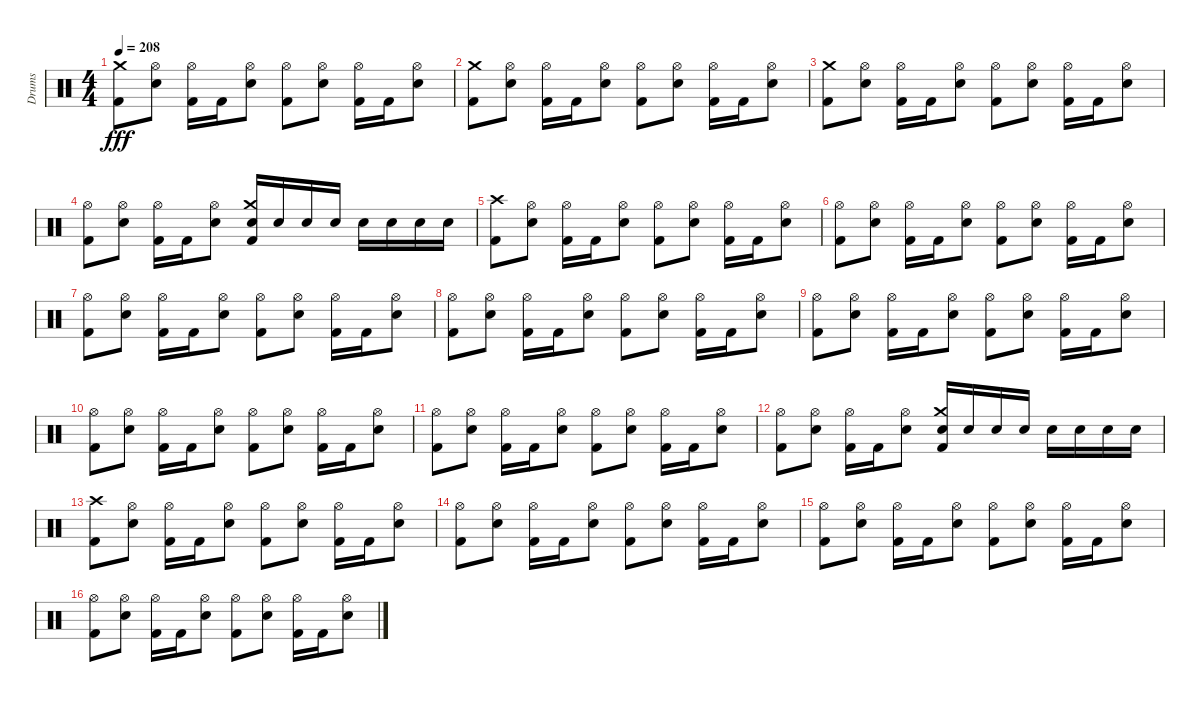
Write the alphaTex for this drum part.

\track ("Drums" "Drums") {instrument percussion}
\staff {score}
\articulation defaults
\ts (4 4)
\tempo 208
\clef neutral
\ks c
("Kick (hit) 2" "Crash medium (hit)").8{dy fff} ("Electric Snare (hit)" "Hi-Hat (open)").8 ("Hi-Hat (open)" "Kick (hit) 2").16 "Kick (hit) 2".16 ("Electric Snare (hit)" "Hi-Hat (open)").8 ("Hi-Hat (open)" "Kick (hit) 2").8 ("Electric Snare (hit)" "Hi-Hat (open)").8 ("Hi-Hat (open)" "Kick (hit) 2").16 "Kick (hit) 2".16 ("Electric Snare (hit)" "Hi-Hat (open)").8 |
("Kick (hit) 2" "Crash medium (hit)").8 ("Electric Snare (hit)" "Hi-Hat (open)").8 ("Hi-Hat (open)" "Kick (hit) 2").16 "Kick (hit) 2".16 ("Electric Snare (hit)" "Hi-Hat (open)").8 ("Hi-Hat (open)" "Kick (hit) 2").8 ("Electric Snare (hit)" "Hi-Hat (open)").8 ("Hi-Hat (open)" "Kick (hit) 2").16 "Kick (hit) 2".16 ("Electric Snare (hit)" "Hi-Hat (open)").8 |
("Kick (hit) 2" "Crash medium (hit)").8 ("Electric Snare (hit)" "Hi-Hat (open)").8 ("Hi-Hat (open)" "Kick (hit) 2").16 "Kick (hit) 2".16 ("Electric Snare (hit)" "Hi-Hat (open)").8 ("Hi-Hat (open)" "Kick (hit) 2").8 ("Electric Snare (hit)" "Hi-Hat (open)").8 ("Hi-Hat (open)" "Kick (hit) 2").16 "Kick (hit) 2".16 ("Electric Snare (hit)" "Hi-Hat (open)").8 |
("Hi-Hat (open)" "Kick (hit) 2").8 ("Electric Snare (hit)" "Hi-Hat (open)").8 ("Hi-Hat (open)" "Kick (hit) 2").16 "Kick (hit) 2".16 ("Electric Snare (hit)" "Hi-Hat (open)").8 ("Kick (hit) 2" "Electric Snare (hit)" "Crash medium (hit)").16 "Electric Snare (hit)".16 "Electric Snare (hit)".16 "Electric Snare (hit)".16 "Electric Snare (hit)".16 "Electric Snare (hit)".16 "Electric Snare (hit)".16 "Electric Snare (hit)".16 |
("Kick (hit) 2" "Crash high (hit)").8 ("Electric Snare (hit)" "Hi-Hat (open)").8 ("Hi-Hat (open)" "Kick (hit) 2").16 "Kick (hit) 2".16 ("Electric Snare (hit)" "Hi-Hat (open)").8 ("Hi-Hat (open)" "Kick (hit) 2").8 ("Electric Snare (hit)" "Hi-Hat (open)").8 ("Hi-Hat (open)" "Kick (hit) 2").16 "Kick (hit) 2".16 ("Electric Snare (hit)" "Hi-Hat (open)").8 |
("Hi-Hat (open)" "Kick (hit) 2").8 ("Electric Snare (hit)" "Hi-Hat (open)").8 ("Hi-Hat (open)" "Kick (hit) 2").16 "Kick (hit) 2".16 ("Electric Snare (hit)" "Hi-Hat (open)").8 ("Hi-Hat (open)" "Kick (hit) 2").8 ("Electric Snare (hit)" "Hi-Hat (open)").8 ("Hi-Hat (open)" "Kick (hit) 2").16 "Kick (hit) 2".16 ("Electric Snare (hit)" "Hi-Hat (open)").8 |
("Hi-Hat (open)" "Kick (hit) 2").8 ("Electric Snare (hit)" "Hi-Hat (open)").8 ("Hi-Hat (open)" "Kick (hit) 2").16 "Kick (hit) 2".16 ("Electric Snare (hit)" "Hi-Hat (open)").8 ("Hi-Hat (open)" "Kick (hit) 2").8 ("Electric Snare (hit)" "Hi-Hat (open)").8 ("Hi-Hat (open)" "Kick (hit) 2").16 "Kick (hit) 2".16 ("Electric Snare (hit)" "Hi-Hat (open)").8 |
("Hi-Hat (open)" "Kick (hit) 2").8 ("Electric Snare (hit)" "Hi-Hat (open)").8 ("Hi-Hat (open)" "Kick (hit) 2").16 "Kick (hit) 2".16 ("Electric Snare (hit)" "Hi-Hat (open)").8 ("Hi-Hat (open)" "Kick (hit) 2").8 ("Electric Snare (hit)" "Hi-Hat (open)").8 ("Hi-Hat (open)" "Kick (hit) 2").16 "Kick (hit) 2".16 ("Electric Snare (hit)" "Hi-Hat (open)").8 |
("Hi-Hat (open)" "Kick (hit) 2").8 ("Electric Snare (hit)" "Hi-Hat (open)").8 ("Hi-Hat (open)" "Kick (hit) 2").16 "Kick (hit) 2".16 ("Electric Snare (hit)" "Hi-Hat (open)").8 ("Hi-Hat (open)" "Kick (hit) 2").8 ("Electric Snare (hit)" "Hi-Hat (open)").8 ("Hi-Hat (open)" "Kick (hit) 2").16 "Kick (hit) 2".16 ("Electric Snare (hit)" "Hi-Hat (open)").8 |
("Hi-Hat (open)" "Kick (hit) 2").8 ("Electric Snare (hit)" "Hi-Hat (open)").8 ("Hi-Hat (open)" "Kick (hit) 2").16 "Kick (hit) 2".16 ("Electric Snare (hit)" "Hi-Hat (open)").8 ("Hi-Hat (open)" "Kick (hit) 2").8 ("Electric Snare (hit)" "Hi-Hat (open)").8 ("Hi-Hat (open)" "Kick (hit) 2").16 "Kick (hit) 2".16 ("Electric Snare (hit)" "Hi-Hat (open)").8 |
("Hi-Hat (open)" "Kick (hit) 2").8 ("Electric Snare (hit)" "Hi-Hat (open)").8 ("Hi-Hat (open)" "Kick (hit) 2").16 "Kick (hit) 2".16 ("Electric Snare (hit)" "Hi-Hat (open)").8 ("Hi-Hat (open)" "Kick (hit) 2").8 ("Electric Snare (hit)" "Hi-Hat (open)").8 ("Hi-Hat (open)" "Kick (hit) 2").16 "Kick (hit) 2".16 ("Electric Snare (hit)" "Hi-Hat (open)").8 |
("Hi-Hat (open)" "Kick (hit) 2").8 ("Electric Snare (hit)" "Hi-Hat (open)").8 ("Hi-Hat (open)" "Kick (hit) 2").16 "Kick (hit) 2".16 ("Electric Snare (hit)" "Hi-Hat (open)").8 ("Kick (hit) 2" "Electric Snare (hit)" "Crash medium (hit)").16 "Electric Snare (hit)".16 "Electric Snare (hit)".16 "Electric Snare (hit)".16 "Electric Snare (hit)".16 "Electric Snare (hit)".16 "Electric Snare (hit)".16 "Electric Snare (hit)".16 |
("Kick (hit) 2" "Crash high (hit)").8 ("Electric Snare (hit)" "Hi-Hat (open)").8 ("Hi-Hat (open)" "Kick (hit) 2").16 "Kick (hit) 2".16 ("Electric Snare (hit)" "Hi-Hat (open)").8 ("Hi-Hat (open)" "Kick (hit) 2").8 ("Electric Snare (hit)" "Hi-Hat (open)").8 ("Hi-Hat (open)" "Kick (hit) 2").16 "Kick (hit) 2".16 ("Electric Snare (hit)" "Hi-Hat (open)").8 |
("Hi-Hat (open)" "Kick (hit) 2").8 ("Electric Snare (hit)" "Hi-Hat (open)").8 ("Hi-Hat (open)" "Kick (hit) 2").16 "Kick (hit) 2".16 ("Electric Snare (hit)" "Hi-Hat (open)").8 ("Hi-Hat (open)" "Kick (hit) 2").8 ("Electric Snare (hit)" "Hi-Hat (open)").8 ("Hi-Hat (open)" "Kick (hit) 2").16 "Kick (hit) 2".16 ("Electric Snare (hit)" "Hi-Hat (open)").8 |
("Hi-Hat (open)" "Kick (hit) 2").8 ("Electric Snare (hit)" "Hi-Hat (open)").8 ("Hi-Hat (open)" "Kick (hit) 2").16 "Kick (hit) 2".16 ("Electric Snare (hit)" "Hi-Hat (open)").8 ("Hi-Hat (open)" "Kick (hit) 2").8 ("Electric Snare (hit)" "Hi-Hat (open)").8 ("Hi-Hat (open)" "Kick (hit) 2").16 "Kick (hit) 2".16 ("Electric Snare (hit)" "Hi-Hat (open)").8 |
("Hi-Hat (open)" "Kick (hit) 2").8 ("Electric Snare (hit)" "Hi-Hat (open)").8 ("Hi-Hat (open)" "Kick (hit) 2").16 "Kick (hit) 2".16 ("Electric Snare (hit)" "Hi-Hat (open)").8 ("Hi-Hat (open)" "Kick (hit) 2").8 ("Electric Snare (hit)" "Hi-Hat (open)").8 ("Hi-Hat (open)" "Kick (hit) 2").16 "Kick (hit) 2".16 ("Electric Snare (hit)" "Hi-Hat (open)").8
